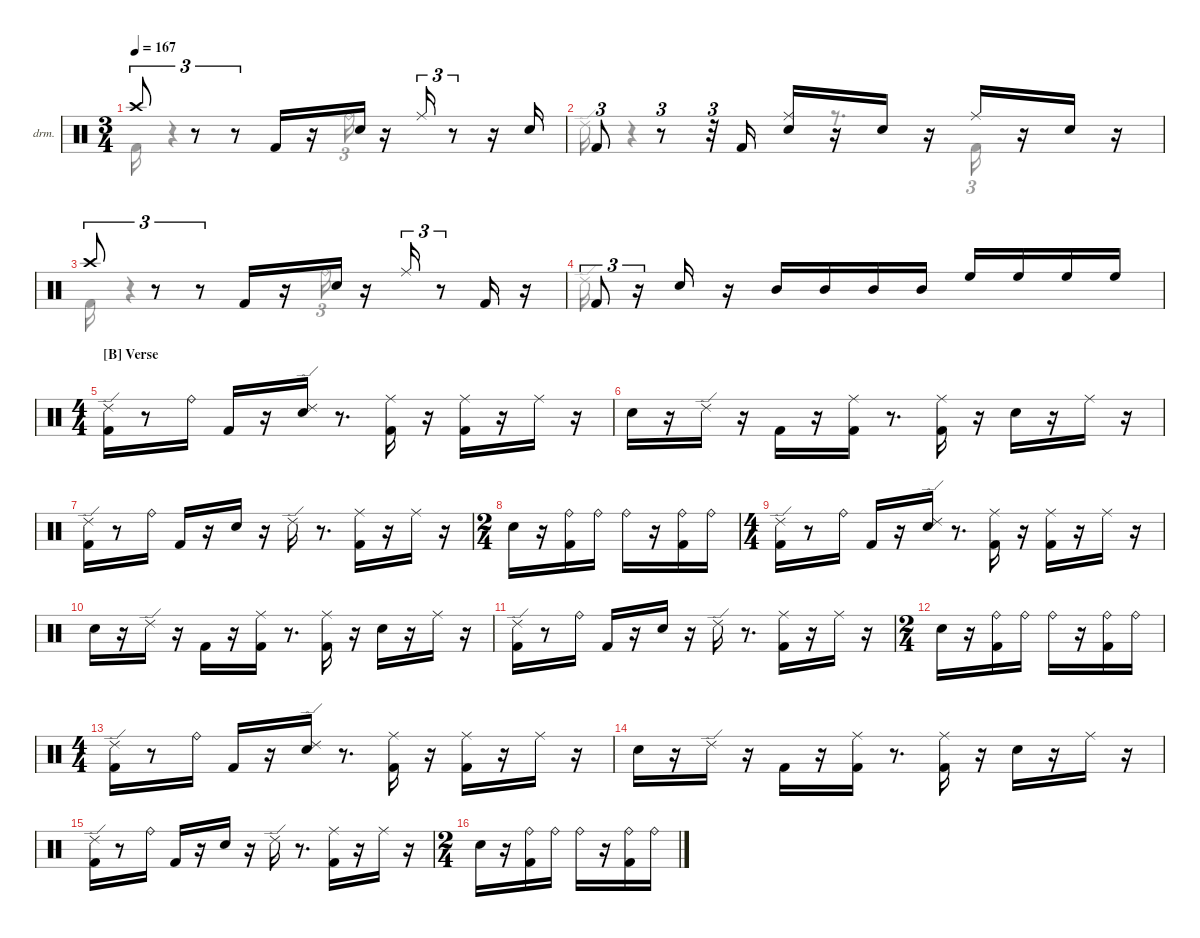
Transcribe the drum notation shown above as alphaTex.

\hideDynamics
\bracketExtendMode nobrackets
\firstSystemTrackNameOrientation horizontal
\otherSystemsTrackNameOrientation horizontal
\track ("Drums" "drm.") {instrument percussion}
\staff {score}
\articulation defaults
\voice
\ts (3 4)
\tempo 167
\clef neutral
\ks aminor "Crash high (hit)"{acc #}.8{tu (3 2) dy fff}
r.8{tu (3 2)} r.8{tu (3 2)} "Kick (hit) 2".16{dy ff} r.16 "Snare (hit) 2".16 r.16 "Ride (middle)"{acc #}.16{tu (3 2) dy fff} r.8{tu (3 2)} r.16 "Snare (hit) 2".16{dy ff} |
"Kick (hit) 2".8{tu (3 2)} r.8{tu (3 2)} r.32{tu (3 2)} "Kick (hit) 2".16 ("Snare (hit) 2" "Ride (middle)"{acc #}).16 r.16 "Snare (hit) 2".16{dy mp} r.16 "Ride (middle)"{acc #}.16{dy fff} r.16 "Snare (hit) 2".16{dy ff} r.16 |
"Crash high (hit)"{acc #}.8{tu (3 2) dy fff} r.8{tu (3 2)} r.8{tu (3 2)} "Kick (hit) 2".16{dy ff} r.16 "Snare (hit) 2".16 r.16 "Ride (middle)"{acc #}.16{tu (3 2) dy fff} r.8{tu (3 2)} "Kick (hit) 2".16{dy mf} r.16 |
"Kick (hit) 2".8{tu (3 2) dy fff} r.16{tu (3 2)} "Snare (hit) 2".16{dy ff} r.16 "Mid Tom (hit)".16{dy fff} "Mid Tom (hit)".16{dy mf} "Mid Tom (hit)".16{dy f} "Mid Tom (hit)".16{dy mp} "High Floor Tom (hit)".16{dy fff} "High Floor Tom (hit)".16{dy f} "High Floor Tom (hit)".16{dy ff} "High Floor Tom (hit)".16{dy f} |
\ts (4 4)
\section ("B" "Verse")
("Kick (hit) 2" "Ride (edge) 2").16{dy ff} r.8 "Ride (bell)".16{dy mf} "Kick (hit) 2".16{dy ff} r.16 ("Snare (hit) 2" "Ride (edge) 2").16 r.8{d} ("Kick (hit) 2" "Ride (middle)"{acc #}).16{dy mf} r.16 ("Kick (hit) 2" "Ride (middle)"{acc #}).16{dy ff} r.16 "Ride (middle)"{acc #}.16{dy mp} r.16 |
"Snare (hit) 2".16{dy ff} r.16 "Ride (edge) 2".16{dy f} r.16 "Kick (hit) 2".16{dy mf} r.16 ("Kick (hit) 2" "Ride (middle)"{acc #}).16{dy ff} r.8{d} ("Kick (hit) 2" "Ride (middle)"{acc #}).16 r.16 "Snare (hit) 2".16 r.16 "Ride (middle)"{acc #}.16 r.16 |
("Kick (hit) 2" "Ride (edge) 2").16 r.8 "Ride (bell)".16{dy mf} "Kick (hit) 2".16{dy ff} r.16 "Snare (hit) 2".16 r.16 "Ride (edge) 2".16 r.8{d} ("Kick (hit) 2" "Ride (middle)"{acc #}).16{dy fff} r.16 "Ride (middle)"{acc #}.16{dy mp} r.16 |
\ts (2 4)
"Snare (hit) 2".16{dy ff} r.16 ("Ride (bell)" "Kick (hit) 2").16{dy f} "Ride (bell)".16{dy mp} "Ride (bell)".16{dy mf} r.16 ("Ride (bell)" "Kick (hit) 2").16{dy f} "Ride (bell)".16{dy mp} |
\ts (4 4)
("Kick (hit) 2" "Ride (edge) 2").16{dy ff} r.8 "Ride (bell)".16{dy mf} "Kick (hit) 2".16{dy ff} r.16 ("Snare (hit) 2" "Ride (edge) 2").16 r.8{d} ("Ride (middle)"{acc #} "Kick (hit) 2").16{dy mf} r.16 ("Ride (middle)"{acc #} "Kick (hit) 2").16{dy ff} r.16 "Ride (middle)"{acc #}.16{dy mp} r.16 |
"Snare (hit) 2".16{dy ff} r.16 "Ride (edge) 2".16{dy f} r.16 "Kick (hit) 2".16{dy mf} r.16 ("Kick (hit) 2" "Ride (middle)"{acc #}).16{dy ff} r.8{d} ("Kick (hit) 2" "Ride (middle)"{acc #}).16 r.16 "Snare (hit) 2".16 r.16 "Ride (middle)"{acc #}.16 r.16 |
("Kick (hit) 2" "Ride (edge) 2").16 r.8 "Ride (bell)".16{dy mf} "Kick (hit) 2".16{dy ff} r.16 "Snare (hit) 2".16 r.16 "Ride (edge) 2".16 r.8{d} ("Kick (hit) 2" "Ride (middle)"{acc #}).16 r.16 "Ride (middle)"{acc #}.16{dy mp} r.16 |
\ts (2 4)
"Snare (hit) 2".16{dy ff} r.16 ("Kick (hit) 2" "Ride (bell)").16{dy f} "Ride (bell)".16{dy mp} "Ride (bell)".16{dy mf} r.16 ("Kick (hit) 2" "Ride (bell)").16{dy f} "Ride (bell)".16{dy mp} |
\ts (4 4)
("Kick (hit) 2" "Ride (edge) 2").16{dy ff} r.8 "Ride (bell)".16{dy mf} "Kick (hit) 2".16{dy ff} r.16 ("Snare (hit) 2" "Ride (edge) 2").16 r.8{d} ("Kick (hit) 2" "Ride (middle)"{acc #}).16{dy mf} r.16 ("Kick (hit) 2" "Ride (middle)"{acc #}).16{dy fff} r.16 "Ride (middle)"{acc #}.16{dy mp} r.16 |
"Snare (hit) 2".16{dy ff} r.16 "Ride (edge) 2".16{dy f} r.16 "Kick (hit) 2".16{dy mf} r.16 ("Kick (hit) 2" "Ride (middle)"{acc #}).16{dy ff} r.8{d} ("Kick (hit) 2" "Ride (middle)"{acc #}).16 r.16 "Snare (hit) 2".16 r.16 "Ride (middle)"{acc #}.16 r.16 |
("Ride (edge) 2" "Kick (hit) 2").16 r.8 "Ride (bell)".16{dy mf} "Kick (hit) 2".16{dy ff} r.16 "Snare (hit) 2".16 r.16 "Ride (edge) 2".16 r.8{d} ("Kick (hit) 2" "Ride (middle)"{acc #}).16{dy fff} r.16 "Ride (middle)"{acc #}.16{dy mp} r.16 |
\ts (2 4)
"Snare (hit) 2".16{dy ff} r.16 ("Ride (bell)" "Kick (hit) 2").16{dy f} "Ride (bell)".16{dy mp} "Ride (bell)".16{dy mf} r.16 ("Kick (hit) 2" "Ride (bell)").16{dy f} "Ride (bell)".16{dy mp}
\voice
\clef neutral
\ottava regular
\simile none
\ks aminor "Kick (hit) 2".16{dy ff}
r.4 r.16 "Ride (bell)".16{tu (3 2) dy mp} |
"Ride (edge) 2".16{dy ff} r.4 r.8{d} "Kick (hit) 2".16{tu (3 2)} |
"Kick (hit) 2".16 r.4 r.16 "Ride (bell)".16{tu (3 2) dy mp} |
"Ride (edge) 2".16{dy ff} |
|
|
|
|
|
|
|
|
|
|
|
